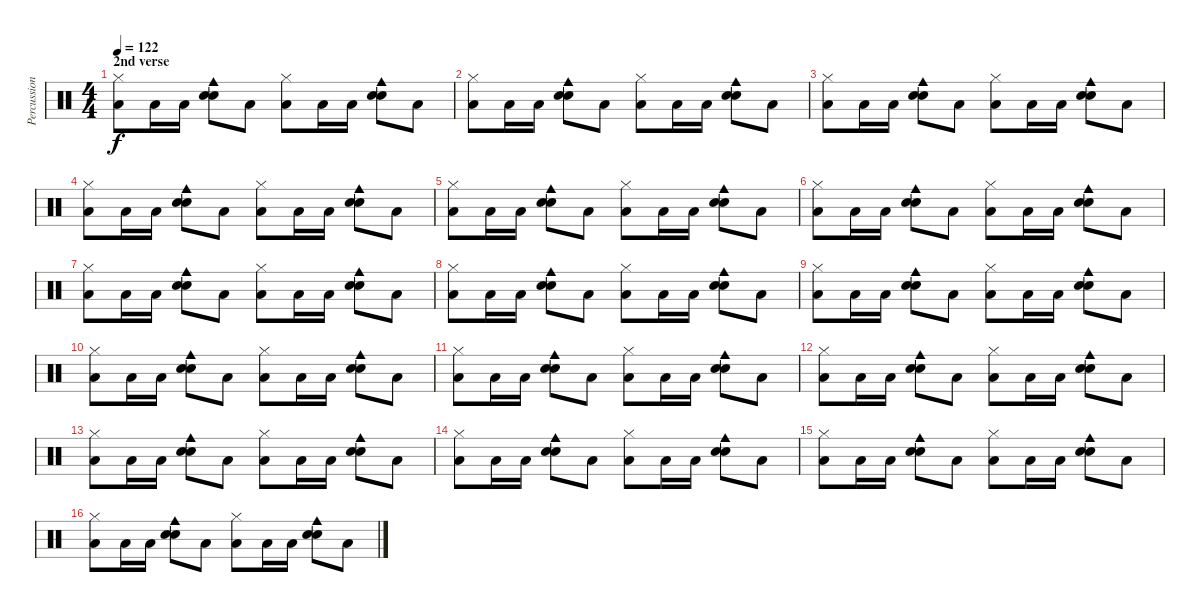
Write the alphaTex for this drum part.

\track ("Percussion" "Percussion") {instrument percussion}
\staff {score}
\articulation defaults
\ts (4 4)
\section ("" "2nd verse")
\tempo 122
\clef neutral
\ks c
("Hi-Hat (closed)" "Low Tom (hit)").8{dy f} "Low Tom (hit)".16 "Low Tom (hit)".16 ("Snare (hit) 2" "Electric Snare (hit)" "Cowbell medium (hit)").8 "Low Tom (hit)".8 ("Hi-Hat (closed)" "Low Tom (hit)").8 "Low Tom (hit)".16 "Low Tom (hit)".16 ("Snare (hit) 2" "Electric Snare (hit)" "Cowbell medium (hit)").8 "Low Tom (hit)".8 |
("Hi-Hat (closed)" "Low Tom (hit)").8 "Low Tom (hit)".16 "Low Tom (hit)".16 ("Snare (hit) 2" "Electric Snare (hit)" "Cowbell medium (hit)").8 "Low Tom (hit)".8 ("Hi-Hat (closed)" "Low Tom (hit)").8 "Low Tom (hit)".16 "Low Tom (hit)".16 ("Snare (hit) 2" "Electric Snare (hit)" "Cowbell medium (hit)").8 "Low Tom (hit)".8 |
("Hi-Hat (closed)" "Low Tom (hit)").8 "Low Tom (hit)".16 "Low Tom (hit)".16 ("Snare (hit) 2" "Electric Snare (hit)" "Cowbell medium (hit)").8 "Low Tom (hit)".8 ("Hi-Hat (closed)" "Low Tom (hit)").8 "Low Tom (hit)".16 "Low Tom (hit)".16 ("Snare (hit) 2" "Electric Snare (hit)" "Cowbell medium (hit)").8 "Low Tom (hit)".8 |
("Hi-Hat (closed)" "Low Tom (hit)").8 "Low Tom (hit)".16 "Low Tom (hit)".16 ("Snare (hit) 2" "Electric Snare (hit)" "Cowbell medium (hit)").8 "Low Tom (hit)".8 ("Hi-Hat (closed)" "Low Tom (hit)").8 "Low Tom (hit)".16 "Low Tom (hit)".16 ("Snare (hit) 2" "Electric Snare (hit)" "Cowbell medium (hit)").8 "Low Tom (hit)".8 |
("Hi-Hat (closed)" "Low Tom (hit)").8 "Low Tom (hit)".16 "Low Tom (hit)".16 ("Snare (hit) 2" "Electric Snare (hit)" "Cowbell medium (hit)").8 "Low Tom (hit)".8 ("Hi-Hat (closed)" "Low Tom (hit)").8 "Low Tom (hit)".16 "Low Tom (hit)".16 ("Snare (hit) 2" "Electric Snare (hit)" "Cowbell medium (hit)").8 "Low Tom (hit)".8 |
("Hi-Hat (closed)" "Low Tom (hit)").8 "Low Tom (hit)".16 "Low Tom (hit)".16 ("Snare (hit) 2" "Electric Snare (hit)" "Cowbell medium (hit)").8 "Low Tom (hit)".8 ("Hi-Hat (closed)" "Low Tom (hit)").8 "Low Tom (hit)".16 "Low Tom (hit)".16 ("Snare (hit) 2" "Electric Snare (hit)" "Cowbell medium (hit)").8 "Low Tom (hit)".8 |
("Hi-Hat (closed)" "Low Tom (hit)").8 "Low Tom (hit)".16 "Low Tom (hit)".16 ("Snare (hit) 2" "Electric Snare (hit)" "Cowbell medium (hit)").8 "Low Tom (hit)".8 ("Hi-Hat (closed)" "Low Tom (hit)").8 "Low Tom (hit)".16 "Low Tom (hit)".16 ("Snare (hit) 2" "Electric Snare (hit)" "Cowbell medium (hit)").8 "Low Tom (hit)".8 |
("Hi-Hat (closed)" "Low Tom (hit)").8 "Low Tom (hit)".16 "Low Tom (hit)".16 ("Snare (hit) 2" "Electric Snare (hit)" "Cowbell medium (hit)").8 "Low Tom (hit)".8 ("Hi-Hat (closed)" "Low Tom (hit)").8 "Low Tom (hit)".16 "Low Tom (hit)".16 ("Snare (hit) 2" "Electric Snare (hit)" "Cowbell medium (hit)").8 "Low Tom (hit)".8 |
("Hi-Hat (closed)" "Low Tom (hit)").8 "Low Tom (hit)".16 "Low Tom (hit)".16 ("Snare (hit) 2" "Electric Snare (hit)" "Cowbell medium (hit)").8 "Low Tom (hit)".8 ("Hi-Hat (closed)" "Low Tom (hit)").8 "Low Tom (hit)".16 "Low Tom (hit)".16 ("Snare (hit) 2" "Electric Snare (hit)" "Cowbell medium (hit)").8 "Low Tom (hit)".8 |
("Hi-Hat (closed)" "Low Tom (hit)").8 "Low Tom (hit)".16 "Low Tom (hit)".16 ("Snare (hit) 2" "Electric Snare (hit)" "Cowbell medium (hit)").8 "Low Tom (hit)".8 ("Hi-Hat (closed)" "Low Tom (hit)").8 "Low Tom (hit)".16 "Low Tom (hit)".16 ("Snare (hit) 2" "Electric Snare (hit)" "Cowbell medium (hit)").8 "Low Tom (hit)".8 |
("Hi-Hat (closed)" "Low Tom (hit)").8 "Low Tom (hit)".16 "Low Tom (hit)".16 ("Snare (hit) 2" "Electric Snare (hit)" "Cowbell medium (hit)").8 "Low Tom (hit)".8 ("Hi-Hat (closed)" "Low Tom (hit)").8 "Low Tom (hit)".16 "Low Tom (hit)".16 ("Snare (hit) 2" "Electric Snare (hit)" "Cowbell medium (hit)").8 "Low Tom (hit)".8 |
("Hi-Hat (closed)" "Low Tom (hit)").8 "Low Tom (hit)".16 "Low Tom (hit)".16 ("Snare (hit) 2" "Electric Snare (hit)" "Cowbell medium (hit)").8 "Low Tom (hit)".8 ("Hi-Hat (closed)" "Low Tom (hit)").8 "Low Tom (hit)".16 "Low Tom (hit)".16 ("Snare (hit) 2" "Electric Snare (hit)" "Cowbell medium (hit)").8 "Low Tom (hit)".8 |
("Hi-Hat (closed)" "Low Tom (hit)").8 "Low Tom (hit)".16 "Low Tom (hit)".16 ("Snare (hit) 2" "Electric Snare (hit)" "Cowbell medium (hit)").8 "Low Tom (hit)".8 ("Hi-Hat (closed)" "Low Tom (hit)").8 "Low Tom (hit)".16 "Low Tom (hit)".16 ("Snare (hit) 2" "Electric Snare (hit)" "Cowbell medium (hit)").8 "Low Tom (hit)".8 |
("Hi-Hat (closed)" "Low Tom (hit)").8 "Low Tom (hit)".16 "Low Tom (hit)".16 ("Snare (hit) 2" "Electric Snare (hit)" "Cowbell medium (hit)").8 "Low Tom (hit)".8 ("Hi-Hat (closed)" "Low Tom (hit)").8 "Low Tom (hit)".16 "Low Tom (hit)".16 ("Snare (hit) 2" "Electric Snare (hit)" "Cowbell medium (hit)").8 "Low Tom (hit)".8 |
("Hi-Hat (closed)" "Low Tom (hit)").8 "Low Tom (hit)".16 "Low Tom (hit)".16 ("Snare (hit) 2" "Electric Snare (hit)" "Cowbell medium (hit)").8 "Low Tom (hit)".8 ("Hi-Hat (closed)" "Low Tom (hit)").8 "Low Tom (hit)".16 "Low Tom (hit)".16 ("Snare (hit) 2" "Electric Snare (hit)" "Cowbell medium (hit)").8 "Low Tom (hit)".8 |
("Hi-Hat (closed)" "Low Tom (hit)").8 "Low Tom (hit)".16 "Low Tom (hit)".16 ("Snare (hit) 2" "Electric Snare (hit)" "Cowbell medium (hit)").8 "Low Tom (hit)".8 ("Hi-Hat (closed)" "Low Tom (hit)").8 "Low Tom (hit)".16 "Low Tom (hit)".16 ("Snare (hit) 2" "Electric Snare (hit)" "Cowbell medium (hit)").8 "Low Tom (hit)".8
